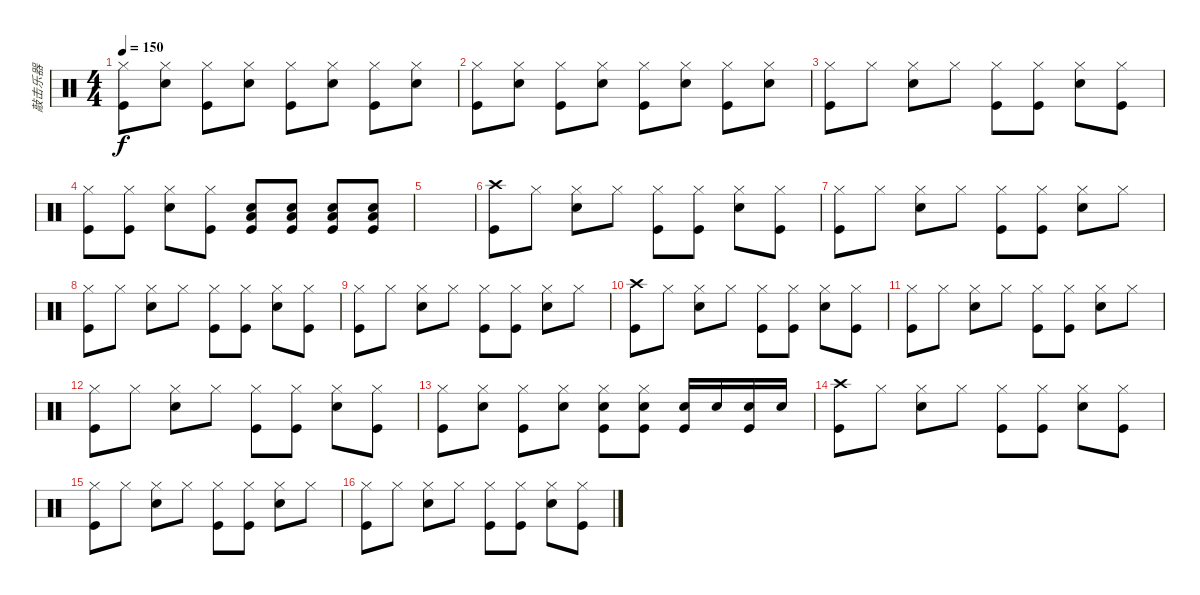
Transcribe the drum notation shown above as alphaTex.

\track ("敲击乐器" "敲击乐器") {instrument percussion}
\staff {score}
\articulation defaults
\ts (4 4)
\tempo 150
\clef neutral
\ks c
("Hi-Hat (closed)" "Kick (hit)").8{dy f} ("Hi-Hat (closed)" "Electric Snare (hit)").8 ("Hi-Hat (closed)" "Kick (hit)").8 ("Hi-Hat (closed)" "Electric Snare (hit)").8 ("Hi-Hat (closed)" "Kick (hit)").8 ("Hi-Hat (closed)" "Electric Snare (hit)").8 ("Hi-Hat (closed)" "Kick (hit)").8 ("Hi-Hat (closed)" "Electric Snare (hit)").8 |
("Hi-Hat (closed)" "Kick (hit)").8 ("Hi-Hat (closed)" "Electric Snare (hit)").8 ("Hi-Hat (closed)" "Kick (hit)").8 ("Hi-Hat (closed)" "Electric Snare (hit)").8 ("Hi-Hat (closed)" "Kick (hit)").8 ("Hi-Hat (closed)" "Electric Snare (hit)").8 ("Hi-Hat (closed)" "Kick (hit)").8 ("Hi-Hat (closed)" "Electric Snare (hit)").8 |
("Hi-Hat (closed)" "Kick (hit)").8 "Hi-Hat (closed)".8 ("Hi-Hat (closed)" "Electric Snare (hit)").8 "Hi-Hat (closed)".8 ("Hi-Hat (closed)" "Kick (hit)").8 ("Hi-Hat (closed)" "Kick (hit)").8 ("Hi-Hat (closed)" "Electric Snare (hit)").8 ("Hi-Hat (closed)" "Kick (hit)").8 |
("Hi-Hat (closed)" "Kick (hit)").8 ("Hi-Hat (closed)" "Kick (hit)").8 ("Hi-Hat (closed)" "Electric Snare (hit)").8 ("Hi-Hat (closed)" "Kick (hit)").8 ("Low Floor Tom (hit)" "Kick (hit)" "Electric Snare (hit)").8 ("Low Floor Tom (hit)" "Kick (hit)" "Electric Snare (hit)").8 ("Low Floor Tom (hit)" "Kick (hit)" "Electric Snare (hit)").8 ("Low Floor Tom (hit)" "Kick (hit)" "Electric Snare (hit)").8 |
|
("Crash high (hit)" "Kick (hit)").8 "Hi-Hat (closed)".8 ("Hi-Hat (closed)" "Electric Snare (hit)").8 "Hi-Hat (closed)".8 ("Hi-Hat (closed)" "Kick (hit)").8 ("Hi-Hat (closed)" "Kick (hit)").8 ("Hi-Hat (closed)" "Electric Snare (hit)").8 ("Hi-Hat (closed)" "Kick (hit)").8 |
("Hi-Hat (closed)" "Kick (hit)").8 "Hi-Hat (closed)".8 ("Hi-Hat (closed)" "Electric Snare (hit)").8 "Hi-Hat (closed)".8 ("Hi-Hat (closed)" "Kick (hit)").8 ("Hi-Hat (closed)" "Kick (hit)").8 ("Hi-Hat (closed)" "Electric Snare (hit)").8 "Hi-Hat (closed)".8 |
("Hi-Hat (closed)" "Kick (hit)").8 "Hi-Hat (closed)".8 ("Hi-Hat (closed)" "Electric Snare (hit)").8 "Hi-Hat (closed)".8 ("Hi-Hat (closed)" "Kick (hit)").8 ("Hi-Hat (closed)" "Kick (hit)").8 ("Hi-Hat (closed)" "Electric Snare (hit)").8 ("Hi-Hat (closed)" "Kick (hit)").8 |
("Hi-Hat (closed)" "Kick (hit)").8 "Hi-Hat (closed)".8 ("Hi-Hat (closed)" "Electric Snare (hit)").8 "Hi-Hat (closed)".8 ("Hi-Hat (closed)" "Kick (hit)").8 ("Hi-Hat (closed)" "Kick (hit)").8 ("Hi-Hat (closed)" "Electric Snare (hit)").8 "Hi-Hat (closed)".8 |
("Crash high (hit)" "Kick (hit)").8 "Hi-Hat (closed)".8 ("Hi-Hat (closed)" "Electric Snare (hit)").8 "Hi-Hat (closed)".8 ("Hi-Hat (closed)" "Kick (hit)").8 ("Hi-Hat (closed)" "Kick (hit)").8 ("Hi-Hat (closed)" "Electric Snare (hit)").8 ("Hi-Hat (closed)" "Kick (hit)").8 |
("Hi-Hat (closed)" "Kick (hit)").8 "Hi-Hat (closed)".8 ("Hi-Hat (closed)" "Electric Snare (hit)").8 "Hi-Hat (closed)".8 ("Hi-Hat (closed)" "Kick (hit)").8 ("Hi-Hat (closed)" "Kick (hit)").8 ("Hi-Hat (closed)" "Electric Snare (hit)").8 "Hi-Hat (closed)".8 |
("Hi-Hat (closed)" "Kick (hit)").8 "Hi-Hat (closed)".8 ("Hi-Hat (closed)" "Electric Snare (hit)").8 "Hi-Hat (closed)".8 ("Hi-Hat (closed)" "Kick (hit)").8 ("Hi-Hat (closed)" "Kick (hit)").8 ("Hi-Hat (closed)" "Electric Snare (hit)").8 ("Hi-Hat (closed)" "Kick (hit)").8 |
("Hi-Hat (closed)" "Kick (hit)").8 ("Hi-Hat (closed)" "Electric Snare (hit)").8 ("Hi-Hat (closed)" "Kick (hit)").8 ("Hi-Hat (closed)" "Electric Snare (hit)").8 ("Hi-Hat (closed)" "Electric Snare (hit)" "Kick (hit)").8 ("Hi-Hat (closed)" "Electric Snare (hit)" "Kick (hit)").8 ("Electric Snare (hit)" "Kick (hit)").16 "Electric Snare (hit)".16 ("Electric Snare (hit)" "Kick (hit)").16 "Electric Snare (hit)".16 |
("Crash high (hit)" "Kick (hit)").8 "Hi-Hat (closed)".8 ("Hi-Hat (closed)" "Electric Snare (hit)").8 "Hi-Hat (closed)".8 ("Hi-Hat (closed)" "Kick (hit)").8 ("Hi-Hat (closed)" "Kick (hit)").8 ("Hi-Hat (closed)" "Electric Snare (hit)").8 ("Hi-Hat (closed)" "Kick (hit)").8 |
("Hi-Hat (closed)" "Kick (hit)").8 "Hi-Hat (closed)".8 ("Hi-Hat (closed)" "Electric Snare (hit)").8 "Hi-Hat (closed)".8 ("Hi-Hat (closed)" "Kick (hit)").8 ("Hi-Hat (closed)" "Kick (hit)").8 ("Hi-Hat (closed)" "Electric Snare (hit)").8 "Hi-Hat (closed)".8 |
("Hi-Hat (closed)" "Kick (hit)").8 "Hi-Hat (closed)".8 ("Hi-Hat (closed)" "Electric Snare (hit)").8 "Hi-Hat (closed)".8 ("Hi-Hat (closed)" "Kick (hit)").8 ("Hi-Hat (closed)" "Kick (hit)").8 ("Hi-Hat (closed)" "Electric Snare (hit)").8 ("Hi-Hat (closed)" "Kick (hit)").8
